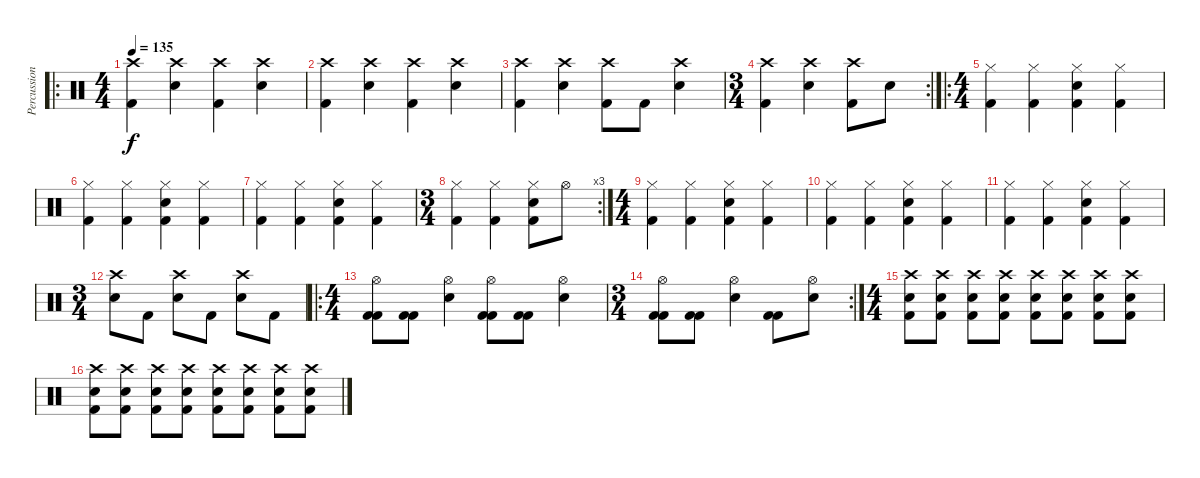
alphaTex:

\track ("Percussions" "Percussion") {instrument percussion}
\staff {score}
\articulation defaults
\ro
\ts (4 4)
\tempo 135
\clef neutral
\ks c
("Crash high (hit)" "Kick (hit) 2").4{dy f} ("Crash high (hit)" "Electric Snare (hit)").4 ("Crash high (hit)" "Kick (hit) 2").4 ("Crash high (hit)" "Electric Snare (hit)").4 |
("Crash high (hit)" "Kick (hit) 2").4 ("Crash high (hit)" "Electric Snare (hit)").4 ("Crash high (hit)" "Kick (hit) 2").4 ("Crash high (hit)" "Electric Snare (hit)").4 |
("Crash high (hit)" "Kick (hit) 2").4 ("Crash high (hit)" "Electric Snare (hit)").4 ("Crash high (hit)" "Kick (hit) 2").8 "Kick (hit) 2".8 ("Crash high (hit)" "Electric Snare (hit)").4 |
\rc 2
\ts (3 4)
("Crash high (hit)" "Kick (hit) 2").4 ("Crash high (hit)" "Electric Snare (hit)").4 ("Crash high (hit)" "Kick (hit) 2").8 "Electric Snare (hit)".8 |
\ro
\ts (4 4)
("Hi-Hat (closed)" "Kick (hit) 2").4 ("Hi-Hat (closed)" "Kick (hit) 2").4 ("Hi-Hat (closed)" "Electric Snare (hit)" "Kick (hit) 2").4 ("Hi-Hat (closed)" "Kick (hit) 2").4 |
("Hi-Hat (closed)" "Kick (hit) 2").4 ("Hi-Hat (closed)" "Kick (hit) 2").4 ("Hi-Hat (closed)" "Electric Snare (hit)" "Kick (hit) 2").4 ("Hi-Hat (closed)" "Kick (hit) 2").4 |
("Hi-Hat (closed)" "Kick (hit) 2").4 ("Hi-Hat (closed)" "Kick (hit) 2").4 ("Hi-Hat (closed)" "Electric Snare (hit)" "Kick (hit) 2").4 ("Hi-Hat (closed)" "Kick (hit) 2").4 |
\rc 3
\ts (3 4)
("Hi-Hat (closed)" "Kick (hit) 2").4 ("Hi-Hat (closed)" "Kick (hit) 2").4 ("Hi-Hat (closed)" "Electric Snare (hit)" "Kick (hit) 2").8 "Hi-Hat (open)".8 |
\ts (4 4)
("Hi-Hat (closed)" "Kick (hit) 2").4 ("Hi-Hat (closed)" "Kick (hit) 2").4 ("Hi-Hat (closed)" "Electric Snare (hit)" "Kick (hit) 2").4 ("Hi-Hat (closed)" "Kick (hit) 2").4 |
("Hi-Hat (closed)" "Kick (hit) 2").4 ("Hi-Hat (closed)" "Kick (hit) 2").4 ("Hi-Hat (closed)" "Electric Snare (hit)" "Kick (hit) 2").4 ("Hi-Hat (closed)" "Kick (hit) 2").4 |
("Hi-Hat (closed)" "Kick (hit) 2").4 ("Hi-Hat (closed)" "Kick (hit) 2").4 ("Hi-Hat (closed)" "Electric Snare (hit)" "Kick (hit) 2").4 ("Hi-Hat (closed)" "Kick (hit) 2").4 |
\ts (3 4)
("Crash high (hit)" "Electric Snare (hit)").8 "Kick (hit) 2".8 ("Crash high (hit)" "Electric Snare (hit)").8 "Kick (hit) 2".8 ("Crash high (hit)" "Electric Snare (hit)").8 "Kick (hit) 2".8 |
\ro
\ts (4 4)
("Hi-Hat (open)" "Kick (hit) 2" "Kick (hit) 2").8 ("Kick (hit) 2" "Kick (hit) 2").8 ("Hi-Hat (open)" "Electric Snare (hit)").4 ("Hi-Hat (open)" "Kick (hit) 2" "Kick (hit) 2").8 ("Kick (hit) 2" "Kick (hit) 2").8 ("Hi-Hat (open)" "Electric Snare (hit)").4 |
\rc 2
\ts (3 4)
("Hi-Hat (open)" "Kick (hit) 2" "Kick (hit) 2").8 ("Kick (hit) 2" "Kick (hit) 2").8 ("Hi-Hat (open)" "Electric Snare (hit)").4 ("Kick (hit) 2" "Kick (hit) 2").8 ("Hi-Hat (open)" "Electric Snare (hit)").8 |
\ts (4 4)
("Crash high (hit)" "Electric Snare (hit)" "Kick (hit) 2").8{volume 2} ("Crash high (hit)" "Electric Snare (hit)" "Kick (hit) 2").8 ("Crash high (hit)" "Electric Snare (hit)" "Kick (hit) 2").8{volume 13} ("Crash high (hit)" "Electric Snare (hit)" "Kick (hit) 2").8 ("Crash high (hit)" "Electric Snare (hit)" "Kick (hit) 2").8 ("Crash high (hit)" "Electric Snare (hit)" "Kick (hit) 2").8 ("Crash high (hit)" "Electric Snare (hit)" "Kick (hit) 2").8 ("Crash high (hit)" "Electric Snare (hit)" "Kick (hit) 2").8 |
("Crash high (hit)" "Electric Snare (hit)" "Kick (hit) 2").8 ("Crash high (hit)" "Electric Snare (hit)" "Kick (hit) 2").8 ("Crash high (hit)" "Electric Snare (hit)" "Kick (hit) 2").8 ("Crash high (hit)" "Electric Snare (hit)" "Kick (hit) 2").8 ("Crash high (hit)" "Electric Snare (hit)" "Kick (hit) 2").8 ("Crash high (hit)" "Electric Snare (hit)" "Kick (hit) 2").8 ("Crash high (hit)" "Electric Snare (hit)" "Kick (hit) 2").8 ("Crash high (hit)" "Electric Snare (hit)" "Kick (hit) 2").8
